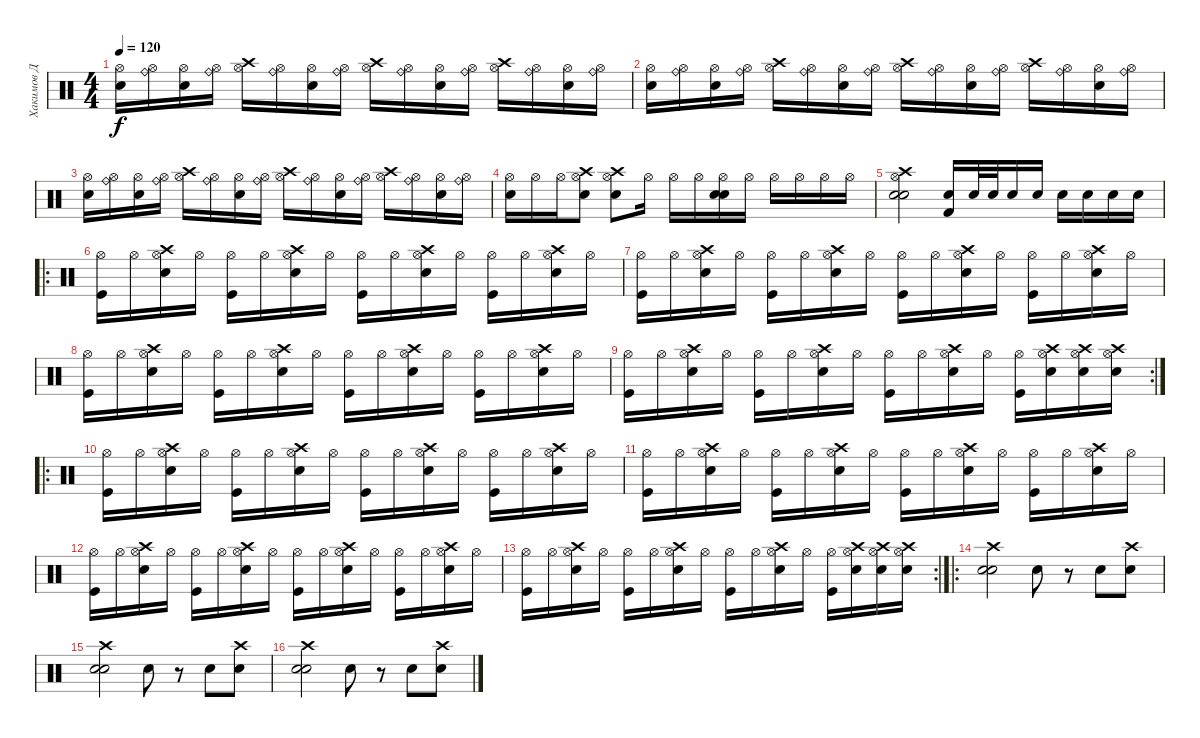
\track ("Хакимов Д" "Хакимов Д") {instrument percussion}
\staff {score}
\articulation defaults
\ts (4 4)
\tempo 120
\clef neutral
\ks c
("Hi-Hat (open)" "Snare (hit) 2").16{dy f} ("Hi-Hat (open)" "Ride (bell)").16 ("Hi-Hat (open)" "Snare (hit) 2").16 ("Hi-Hat (open)" "Ride (bell)").16 ("Hi-Hat (open)" "Crash high (hit)").16 ("Hi-Hat (open)" "Ride (bell)").16 ("Hi-Hat (open)" "Snare (hit) 2").16 ("Hi-Hat (open)" "Ride (bell)").16 ("Hi-Hat (open)" "Crash high (hit)").16 ("Hi-Hat (open)" "Ride (bell)").16 ("Hi-Hat (open)" "Snare (hit) 2").16 ("Hi-Hat (open)" "Ride (bell)").16 ("Hi-Hat (open)" "Crash high (hit)").16 ("Hi-Hat (open)" "Ride (bell)").16 ("Hi-Hat (open)" "Snare (hit) 2").16 ("Hi-Hat (open)" "Ride (bell)").16 |
("Hi-Hat (open)" "Snare (hit) 2").16 ("Hi-Hat (open)" "Ride (bell)").16 ("Hi-Hat (open)" "Snare (hit) 2").16 ("Hi-Hat (open)" "Ride (bell)").16 ("Hi-Hat (open)" "Crash high (hit)").16 ("Hi-Hat (open)" "Ride (bell)").16 ("Hi-Hat (open)" "Snare (hit) 2").16 ("Hi-Hat (open)" "Ride (bell)").16 ("Hi-Hat (open)" "Crash high (hit)").16 ("Hi-Hat (open)" "Ride (bell)").16 ("Hi-Hat (open)" "Snare (hit) 2").16 ("Hi-Hat (open)" "Ride (bell)").16 ("Hi-Hat (open)" "Crash high (hit)").16 ("Hi-Hat (open)" "Ride (bell)").16 ("Hi-Hat (open)" "Snare (hit) 2").16 ("Hi-Hat (open)" "Ride (bell)").16 |
("Hi-Hat (open)" "Snare (hit) 2").16 ("Hi-Hat (open)" "Ride (bell)").16 ("Hi-Hat (open)" "Snare (hit) 2").16 ("Hi-Hat (open)" "Ride (bell)").16 ("Hi-Hat (open)" "Crash high (hit)").16 ("Hi-Hat (open)" "Ride (bell)").16 ("Hi-Hat (open)" "Snare (hit) 2").16 ("Hi-Hat (open)" "Ride (bell)").16 ("Hi-Hat (open)" "Crash high (hit)").16 ("Hi-Hat (open)" "Ride (bell)").16 ("Hi-Hat (open)" "Snare (hit) 2").16 ("Hi-Hat (open)" "Ride (bell)").16 ("Hi-Hat (open)" "Crash high (hit)").16 ("Hi-Hat (open)" "Ride (bell)").16 ("Hi-Hat (open)" "Snare (hit) 2").16 ("Hi-Hat (open)" "Ride (bell)").16 |
("Hi-Hat (open)" "Electric Snare (hit)").16 "Hi-Hat (open)".16 "Hi-Hat (open)".16 ("Hi-Hat (open)" "Snare (hit) 2" "Crash high (hit)").8 ("Hi-Hat (open)" "Snare (hit) 2" "Crash high (hit)").8 "Hi-Hat (open)".16 "Hi-Hat (open)".16 "Hi-Hat (open)".16 ("Hi-Hat (open)" "Snare (hit) 2" "Electric Snare (hit)").16 "Hi-Hat (open)".16 "Hi-Hat (open)".16 "Hi-Hat (open)".16 "Hi-Hat (open)".16 "Hi-Hat (open)".16 |
("Hi-Hat (open)" "Crash high (hit)" "Snare (hit) 2" "Electric Snare (hit)").2 ("Snare (hit) 2" "Kick (hit) 2").16 "Snare (hit) 2".32 "Snare (hit) 2".32 "Snare (hit) 2".16 "Snare (hit) 2".16 "Snare (hit) 2".16 "Snare (hit) 2".16 "Snare (hit) 2".16 "Snare (hit) 2".16 |
\ro
("Hi-Hat (open)" "Kick (hit)").16 "Hi-Hat (open)".16 ("Hi-Hat (open)" "Electric Snare (hit)" "Crash high (hit)").16 "Hi-Hat (open)".16 ("Hi-Hat (open)" "Kick (hit)").16 "Hi-Hat (open)".16 ("Hi-Hat (open)" "Electric Snare (hit)" "Crash high (hit)").16 "Hi-Hat (open)".16 ("Hi-Hat (open)" "Kick (hit)").16 "Hi-Hat (open)".16 ("Hi-Hat (open)" "Electric Snare (hit)" "Crash high (hit)").16 "Hi-Hat (open)".16 ("Hi-Hat (open)" "Kick (hit)").16 "Hi-Hat (open)".16 ("Hi-Hat (open)" "Electric Snare (hit)" "Crash high (hit)").16 "Hi-Hat (open)".16 |
("Hi-Hat (open)" "Kick (hit)").16 "Hi-Hat (open)".16 ("Hi-Hat (open)" "Electric Snare (hit)" "Crash high (hit)").16 "Hi-Hat (open)".16 ("Hi-Hat (open)" "Kick (hit)").16 "Hi-Hat (open)".16 ("Hi-Hat (open)" "Electric Snare (hit)" "Crash high (hit)").16 "Hi-Hat (open)".16 ("Hi-Hat (open)" "Kick (hit)").16 "Hi-Hat (open)".16 ("Hi-Hat (open)" "Electric Snare (hit)" "Crash high (hit)").16 "Hi-Hat (open)".16 ("Hi-Hat (open)" "Kick (hit)").16 "Hi-Hat (open)".16 ("Hi-Hat (open)" "Electric Snare (hit)" "Crash high (hit)").16 "Hi-Hat (open)".16 |
("Hi-Hat (open)" "Kick (hit)").16 "Hi-Hat (open)".16 ("Hi-Hat (open)" "Electric Snare (hit)" "Crash high (hit)").16 "Hi-Hat (open)".16 ("Hi-Hat (open)" "Kick (hit)").16 "Hi-Hat (open)".16 ("Hi-Hat (open)" "Electric Snare (hit)" "Crash high (hit)").16 "Hi-Hat (open)".16 ("Hi-Hat (open)" "Kick (hit)").16 "Hi-Hat (open)".16 ("Hi-Hat (open)" "Electric Snare (hit)" "Crash high (hit)").16 "Hi-Hat (open)".16 ("Hi-Hat (open)" "Kick (hit)").16 "Hi-Hat (open)".16 ("Hi-Hat (open)" "Electric Snare (hit)" "Crash high (hit)").16 "Hi-Hat (open)".16 |
\rc 2
("Hi-Hat (open)" "Kick (hit)").16 "Hi-Hat (open)".16 ("Hi-Hat (open)" "Electric Snare (hit)" "Crash high (hit)").16 "Hi-Hat (open)".16 ("Hi-Hat (open)" "Kick (hit)").16 "Hi-Hat (open)".16 ("Hi-Hat (open)" "Electric Snare (hit)" "Crash high (hit)").16 "Hi-Hat (open)".16 ("Hi-Hat (open)" "Kick (hit)").16 "Hi-Hat (open)".16 ("Hi-Hat (open)" "Electric Snare (hit)" "Crash high (hit)").16 "Hi-Hat (open)".16 ("Hi-Hat (open)" "Kick (hit)").16 ("Hi-Hat (open)" "Snare (hit) 2" "Crash high (hit)").16 ("Hi-Hat (open)" "Electric Snare (hit)" "Crash high (hit)").16 ("Hi-Hat (open)" "Snare (hit) 2" "Crash high (hit)").16 |
\ro
("Hi-Hat (open)" "Kick (hit)").16 "Hi-Hat (open)".16 ("Hi-Hat (open)" "Electric Snare (hit)" "Crash high (hit)").16 "Hi-Hat (open)".16 ("Hi-Hat (open)" "Kick (hit)").16 "Hi-Hat (open)".16 ("Hi-Hat (open)" "Electric Snare (hit)" "Crash high (hit)").16 "Hi-Hat (open)".16 ("Hi-Hat (open)" "Kick (hit)").16 "Hi-Hat (open)".16 ("Hi-Hat (open)" "Electric Snare (hit)" "Crash high (hit)").16 "Hi-Hat (open)".16 ("Hi-Hat (open)" "Kick (hit)").16 "Hi-Hat (open)".16 ("Hi-Hat (open)" "Electric Snare (hit)" "Crash high (hit)").16 "Hi-Hat (open)".16 |
("Hi-Hat (open)" "Kick (hit)").16 "Hi-Hat (open)".16 ("Hi-Hat (open)" "Electric Snare (hit)" "Crash high (hit)").16 "Hi-Hat (open)".16 ("Hi-Hat (open)" "Kick (hit)").16 "Hi-Hat (open)".16 ("Hi-Hat (open)" "Electric Snare (hit)" "Crash high (hit)").16 "Hi-Hat (open)".16 ("Hi-Hat (open)" "Kick (hit)").16 "Hi-Hat (open)".16 ("Hi-Hat (open)" "Electric Snare (hit)" "Crash high (hit)").16 "Hi-Hat (open)".16 ("Hi-Hat (open)" "Kick (hit)").16 "Hi-Hat (open)".16 ("Hi-Hat (open)" "Electric Snare (hit)" "Crash high (hit)").16 "Hi-Hat (open)".16 |
("Hi-Hat (open)" "Kick (hit)").16 "Hi-Hat (open)".16 ("Hi-Hat (open)" "Electric Snare (hit)" "Crash high (hit)").16 "Hi-Hat (open)".16 ("Hi-Hat (open)" "Kick (hit)").16 "Hi-Hat (open)".16 ("Hi-Hat (open)" "Electric Snare (hit)" "Crash high (hit)").16 "Hi-Hat (open)".16 ("Hi-Hat (open)" "Kick (hit)").16 "Hi-Hat (open)".16 ("Hi-Hat (open)" "Electric Snare (hit)" "Crash high (hit)").16 "Hi-Hat (open)".16 ("Hi-Hat (open)" "Kick (hit)").16 "Hi-Hat (open)".16 ("Hi-Hat (open)" "Electric Snare (hit)" "Crash high (hit)").16 "Hi-Hat (open)".16 |
\rc 2
("Hi-Hat (open)" "Kick (hit)").16 "Hi-Hat (open)".16 ("Hi-Hat (open)" "Electric Snare (hit)" "Crash high (hit)").16 "Hi-Hat (open)".16 ("Hi-Hat (open)" "Kick (hit)").16 "Hi-Hat (open)".16 ("Hi-Hat (open)" "Electric Snare (hit)" "Crash high (hit)").16 "Hi-Hat (open)".16 ("Hi-Hat (open)" "Kick (hit)").16 "Hi-Hat (open)".16 ("Hi-Hat (open)" "Electric Snare (hit)" "Crash high (hit)").16 "Hi-Hat (open)".16 ("Hi-Hat (open)" "Kick (hit)").16 ("Hi-Hat (open)" "Snare (hit) 2" "Crash high (hit)").16 ("Hi-Hat (open)" "Electric Snare (hit)" "Crash high (hit)").16 ("Hi-Hat (open)" "Snare (hit) 2" "Crash high (hit)").16 |
\ro
("Crash high (hit)" "Snare (hit) 2" "Electric Snare (hit)").2 "Snare (hit) 2".8 r.8 "Snare (hit) 2".8 ("Crash high (hit)" "Snare (hit) 2").8 |
("Crash high (hit)" "Snare (hit) 2" "Electric Snare (hit)").2 "Snare (hit) 2".8 r.8 "Snare (hit) 2".8 ("Crash high (hit)" "Snare (hit) 2").8 |
("Crash high (hit)" "Snare (hit) 2" "Electric Snare (hit)").2 "Snare (hit) 2".8 r.8 "Snare (hit) 2".8 ("Crash high (hit)" "Snare (hit) 2").8
